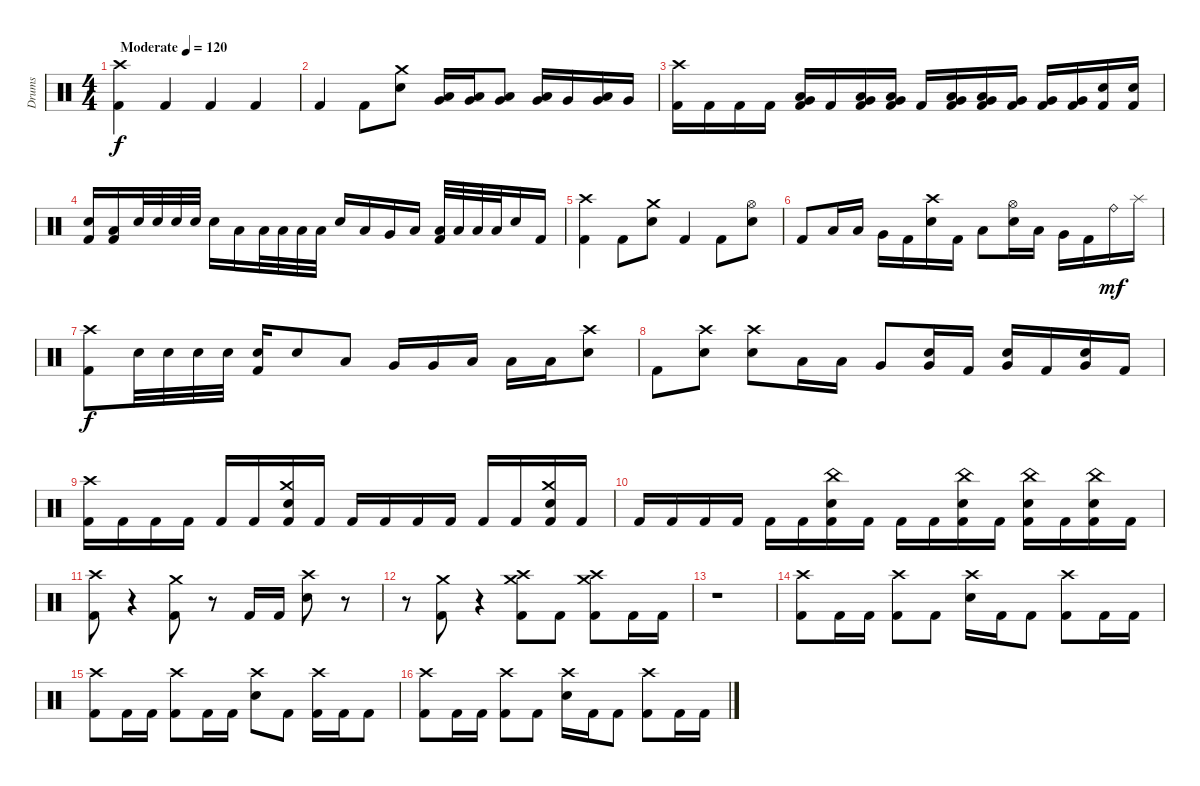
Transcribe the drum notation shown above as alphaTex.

\track ("Drums" "Drums") {instrument percussion}
\staff {score}
\articulation defaults
\ts (4 4)
\tempo (120 "Moderate")
\clef neutral
\ks c
("Crash high (hit)" "Kick (hit) 2").4{dy f} "Kick (hit) 2".4 "Kick (hit) 2".4 "Kick (hit) 2".4 |
"Kick (hit) 2".4 "Kick (hit) 2".8 ("Crash medium (hit)" "Electric Snare (hit)").8 ("Very Low Tom (hit)" "Low Tom (hit)").16 ("Very Low Tom (hit)" "Low Tom (hit)").16 ("Very Low Tom (hit)" "Low Tom (hit)").8 ("Very Low Tom (hit)" "Low Tom (hit)").16 "Very Low Tom (hit)".16 ("Very Low Tom (hit)" "Low Tom (hit)").16 "Very Low Tom (hit)".16 |
("Crash high (hit)" "Kick (hit) 2").16 "Kick (hit) 2".16 "Kick (hit) 2".16 "Kick (hit) 2".16 ("Very Low Tom (hit)" "Low Tom (hit)" "Kick (hit) 2").16 "Kick (hit) 2".16 ("Very Low Tom (hit)" "Low Tom (hit)" "Kick (hit) 2").16 ("Very Low Tom (hit)" "Low Tom (hit)" "Kick (hit) 2").16 "Kick (hit) 2".16 ("Very Low Tom (hit)" "Low Tom (hit)" "Kick (hit) 2").16 ("Very Low Tom (hit)" "Low Tom (hit)" "Kick (hit) 2").16 ("Very Low Tom (hit)" "Kick (hit) 2").16 ("Very Low Tom (hit)" "Kick (hit) 2").16 ("Very Low Tom (hit)" "Kick (hit) 2").16 ("Electric Snare (hit)" "Kick (hit) 2").16 ("Electric Snare (hit)" "Kick (hit) 2").16 |
("Electric Snare (hit)" "Kick (hit) 2").16 ("Low Tom (hit)" "Kick (hit) 2").16 "Electric Snare (hit)".32 "Electric Snare (hit)".32 "Electric Snare (hit)".32 "Electric Snare (hit)".32 "Electric Snare (hit)".16 "Low Tom (hit)".16 "Low Tom (hit)".32 "Low Tom (hit)".32 "Low Tom (hit)".32 "Low Tom (hit)".32 "Electric Snare (hit)".16 "Low Tom (hit)".16 "Very Low Tom (hit)".16 "Low Floor Tom (hit)".16 ("Low Floor Tom (hit)" "Kick (hit) 2").32 "Low Floor Tom (hit)".32 "Low Floor Tom (hit)".32 "Low Floor Tom (hit)".32 "Electric Snare (hit)".16 "Kick (hit) 2".16 |
("Crash high (hit)" "Kick (hit) 2").4 "Kick (hit) 2".8 ("Crash medium (hit)" "Electric Snare (hit)").8 "Kick (hit) 2".4 "Kick (hit) 2".8 ("Hi-Hat (open)" "Electric Snare (hit)").8 |
"Kick (hit) 2".8 "Low Tom (hit)".16 "Low Tom (hit)".16 "Very Low Tom (hit)".16 "Kick (hit) 2".16 ("Crash high (hit)" "Electric Snare (hit)").16 "Kick (hit) 2".16 "Low Tom (hit)".8 ("Hi-Hat (open)" "Electric Snare (hit)").16 "Low Tom (hit)".16 "Very Low Tom (hit)".16 "Kick (hit) 2".16 "Ride (bell)".16{dy mf} "Splash (hit)".16 |
("Crash high (hit)" "Kick (hit) 2").8{dy f} "Electric Snare (hit)".32 "Electric Snare (hit)".32 "Electric Snare (hit)".32 "Electric Snare (hit)".32 ("Electric Snare (hit)" "Kick (hit) 2").16 "Electric Snare (hit)".8 "Low Tom (hit)".8 "Very Low Tom (hit)".16 "Very Low Tom (hit)".16 "Low Floor Tom (hit)".16 "Low Floor Tom (hit)".16 "Low Floor Tom (hit)".16 ("Crash high (hit)" "Electric Snare (hit)").8 |
"Kick (hit) 2".8 ("Crash high (hit)" "Electric Snare (hit)").8 ("Crash high (hit)" "Electric Snare (hit)").8 "Low Tom (hit)".16 "Low Tom (hit)".16 "Very Low Tom (hit)".8 ("Very Low Tom (hit)" "Electric Snare (hit)").16 "Kick (hit) 2".16 ("Very Low Tom (hit)" "Electric Snare (hit)").16 "Kick (hit) 2".16 ("Very Low Tom (hit)" "Electric Snare (hit)").16 "Kick (hit) 2".16 |
("Crash high (hit)" "Kick (hit) 2").16 "Kick (hit) 2".16 "Kick (hit) 2".16 "Kick (hit) 2".16 "Kick (hit) 2".16 "Kick (hit) 2".16 ("Crash medium (hit)" "Electric Snare (hit)" "Kick (hit) 2").16 "Kick (hit) 2".16 "Kick (hit) 2".16 "Kick (hit) 2".16 "Kick (hit) 2".16 "Kick (hit) 2".16 "Kick (hit) 2".16 "Kick (hit) 2".16 ("Crash medium (hit)" "Electric Snare (hit)" "Kick (hit) 2").16 "Kick (hit) 2".16 |
"Kick (hit) 2".16 "Kick (hit) 2".16 "Kick (hit) 2".16 "Kick (hit) 2".16 "Kick (hit) 2".16 "Kick (hit) 2".16 ("China (hit)" "Electric Snare (hit)" "Kick (hit) 2").16 "Kick (hit) 2".16 "Kick (hit) 2".16 "Kick (hit) 2".16 ("China (hit)" "Electric Snare (hit)" "Kick (hit) 2").16 "Kick (hit) 2".16 ("China (hit)" "Electric Snare (hit)" "Kick (hit) 2").16 "Kick (hit) 2".16 ("China (hit)" "Electric Snare (hit)" "Kick (hit) 2").16 "Kick (hit) 2".16 |
("Crash high (hit)" "Kick (hit) 2").8 r.4{volume 0} ("Crash medium (hit)" "Kick (hit) 2").8{volume 15} r.8{volume 0} "Kick (hit) 2".16{volume 15} "Kick (hit) 2".16 ("Crash high (hit)" "Electric Snare (hit)").8 r.8{volume 0} |
r.8 ("Crash medium (hit)" "Kick (hit) 2").8{volume 15} r.4{volume 0} ("Crash medium (hit)" "Crash high (hit)" "Kick (hit) 2").8{volume 15} "Kick (hit) 2".8 ("Crash medium (hit)" "Crash high (hit)" "Kick (hit) 2").8 "Kick (hit) 2".16 "Kick (hit) 2".16 |
r.1{volume 0} |
("Crash high (hit)" "Kick (hit) 2").8{volume 15} "Kick (hit) 2".16 "Kick (hit) 2".16 ("Crash high (hit)" "Kick (hit) 2").8 "Kick (hit) 2".8 ("Crash high (hit)" "Electric Snare (hit)").16 "Kick (hit) 2".16 "Kick (hit) 2".8 ("Crash high (hit)" "Kick (hit) 2").8 "Kick (hit) 2".16 "Kick (hit) 2".16 |
("Crash high (hit)" "Kick (hit) 2").8 "Kick (hit) 2".16 "Kick (hit) 2".16 ("Crash high (hit)" "Kick (hit) 2").8 "Kick (hit) 2".16 "Kick (hit) 2".16 ("Crash high (hit)" "Electric Snare (hit)").8 "Kick (hit) 2".8 ("Crash high (hit)" "Kick (hit) 2").16 "Kick (hit) 2".16 "Kick (hit) 2".8 |
("Crash high (hit)" "Kick (hit) 2").8 "Kick (hit) 2".16 "Kick (hit) 2".16 ("Crash high (hit)" "Kick (hit) 2").8 "Kick (hit) 2".8 ("Crash high (hit)" "Electric Snare (hit)").16 "Kick (hit) 2".16 "Kick (hit) 2".8 ("Crash high (hit)" "Kick (hit) 2").8 "Kick (hit) 2".16 "Kick (hit) 2".16
